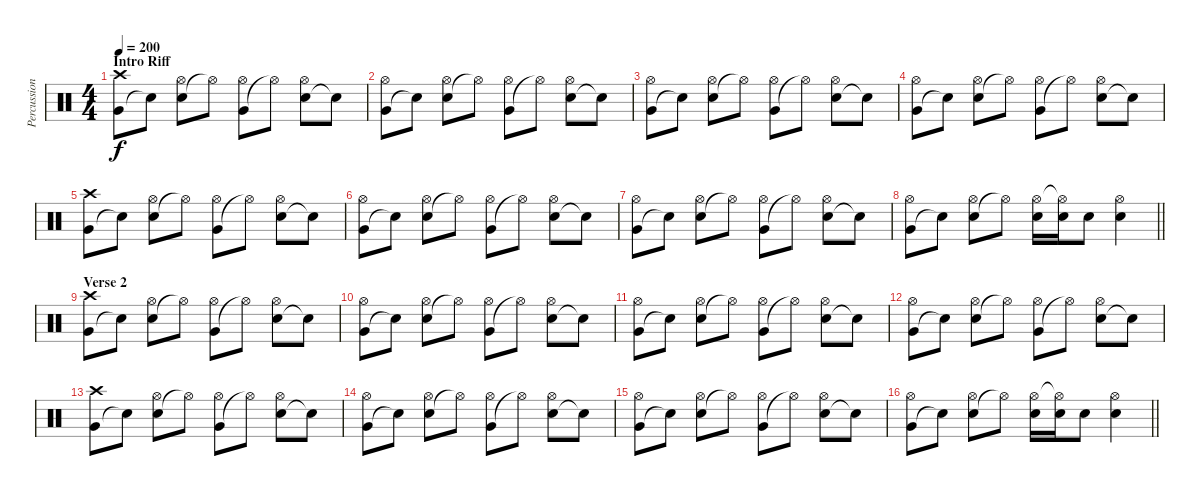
\track ("Percussion" "Percussion") {instrument percussion}
\staff {score}
\articulation defaults
\ts (4 4)
\section ("" "Intro Riff")
\tempo 200
\clef neutral
\ks c
("Very Low Tom (hit)" "Crash high (hit)").8{dy f} "Snare (hit)"{t}.8 ("Snare (hit) 2" "Hi-Hat (open)").8 "Hi-Hat (open)"{t}.8 ("Very Low Tom (hit)" "Hi-Hat (open)").8 "Hi-Hat (open)"{t}.8 ("Snare (hit) 2" "Hi-Hat (open)").8 "Snare (hit)"{t}.8 |
("Very Low Tom (hit)" "Hi-Hat (open)").8 "Snare (hit)"{t}.8 ("Snare (hit) 2" "Hi-Hat (open)").8 "Hi-Hat (open)"{t}.8 ("Very Low Tom (hit)" "Hi-Hat (open)").8 "Hi-Hat (open)"{t}.8 ("Snare (hit) 2" "Hi-Hat (open)").8 "Snare (hit)"{t}.8 |
("Very Low Tom (hit)" "Hi-Hat (open)").8 "Snare (hit)"{t}.8 ("Snare (hit) 2" "Hi-Hat (open)").8 "Hi-Hat (open)"{t}.8 ("Very Low Tom (hit)" "Hi-Hat (open)").8 "Hi-Hat (open)"{t}.8 ("Snare (hit) 2" "Hi-Hat (open)").8 "Snare (hit)"{t}.8 |
("Very Low Tom (hit)" "Hi-Hat (open)").8 "Snare (hit)"{t}.8 ("Snare (hit) 2" "Hi-Hat (open)").8 "Hi-Hat (open)"{t}.8 ("Very Low Tom (hit)" "Hi-Hat (open)").8 "Hi-Hat (open)"{t}.8 ("Snare (hit) 2" "Hi-Hat (open)").8 "Snare (hit)"{t}.8 |
("Very Low Tom (hit)" "Crash high (hit)").8 "Snare (hit)"{t}.8 ("Snare (hit) 2" "Hi-Hat (open)").8 "Hi-Hat (open)"{t}.8 ("Very Low Tom (hit)" "Hi-Hat (open)").8 "Hi-Hat (open)"{t}.8 ("Snare (hit) 2" "Hi-Hat (open)").8 "Snare (hit)"{t}.8 |
("Very Low Tom (hit)" "Hi-Hat (open)").8 "Snare (hit)"{t}.8 ("Snare (hit) 2" "Hi-Hat (open)").8 "Hi-Hat (open)"{t}.8 ("Very Low Tom (hit)" "Hi-Hat (open)").8 "Hi-Hat (open)"{t}.8 ("Snare (hit) 2" "Hi-Hat (open)").8 "Snare (hit)"{t}.8 |
("Very Low Tom (hit)" "Hi-Hat (open)").8 "Snare (hit)"{t}.8 ("Snare (hit) 2" "Hi-Hat (open)").8 "Hi-Hat (open)"{t}.8 ("Very Low Tom (hit)" "Hi-Hat (open)").8 "Hi-Hat (open)"{t}.8 ("Snare (hit) 2" "Hi-Hat (open)").8 "Snare (hit)"{t}.8 |
\barLineRight lightlight
("Very Low Tom (hit)" "Hi-Hat (open)").8 "Snare (hit)"{t}.8 ("Snare (hit) 2" "Hi-Hat (open)").8 "Hi-Hat (open)"{t}.8 ("Electric Snare (hit)" "Hi-Hat (open)").16 ("Electric Snare (hit)" "Hi-Hat (open)"{t}).16 "Electric Snare (hit)".8 ("Snare (hit) 2" "Hi-Hat (open)").4 |
\section ("" "Verse 2")
("Very Low Tom (hit)" "Crash high (hit)").8 "Snare (hit)"{t}.8 ("Snare (hit) 2" "Hi-Hat (open)").8 "Hi-Hat (open)"{t}.8 ("Very Low Tom (hit)" "Hi-Hat (open)").8 "Hi-Hat (open)"{t}.8 ("Snare (hit) 2" "Hi-Hat (open)").8 "Snare (hit)"{t}.8 |
("Very Low Tom (hit)" "Hi-Hat (open)").8 "Snare (hit)"{t}.8 ("Snare (hit) 2" "Hi-Hat (open)").8 "Hi-Hat (open)"{t}.8 ("Very Low Tom (hit)" "Hi-Hat (open)").8 "Hi-Hat (open)"{t}.8 ("Snare (hit) 2" "Hi-Hat (open)").8 "Snare (hit)"{t}.8 |
("Very Low Tom (hit)" "Hi-Hat (open)").8 "Snare (hit)"{t}.8 ("Snare (hit) 2" "Hi-Hat (open)").8 "Hi-Hat (open)"{t}.8 ("Very Low Tom (hit)" "Hi-Hat (open)").8 "Hi-Hat (open)"{t}.8 ("Snare (hit) 2" "Hi-Hat (open)").8 "Snare (hit)"{t}.8 |
("Very Low Tom (hit)" "Hi-Hat (open)").8 "Snare (hit)"{t}.8 ("Snare (hit) 2" "Hi-Hat (open)").8 "Hi-Hat (open)"{t}.8 ("Very Low Tom (hit)" "Hi-Hat (open)").8 "Hi-Hat (open)"{t}.8 ("Snare (hit) 2" "Hi-Hat (open)").8 "Snare (hit)"{t}.8 |
("Very Low Tom (hit)" "Crash high (hit)").8 "Snare (hit)"{t}.8 ("Snare (hit) 2" "Hi-Hat (open)").8 "Hi-Hat (open)"{t}.8 ("Very Low Tom (hit)" "Hi-Hat (open)").8 "Hi-Hat (open)"{t}.8 ("Snare (hit) 2" "Hi-Hat (open)").8 "Snare (hit)"{t}.8 |
("Very Low Tom (hit)" "Hi-Hat (open)").8 "Snare (hit)"{t}.8 ("Snare (hit) 2" "Hi-Hat (open)").8 "Hi-Hat (open)"{t}.8 ("Very Low Tom (hit)" "Hi-Hat (open)").8 "Hi-Hat (open)"{t}.8 ("Snare (hit) 2" "Hi-Hat (open)").8 "Snare (hit)"{t}.8 |
("Very Low Tom (hit)" "Hi-Hat (open)").8 "Snare (hit)"{t}.8 ("Snare (hit) 2" "Hi-Hat (open)").8 "Hi-Hat (open)"{t}.8 ("Very Low Tom (hit)" "Hi-Hat (open)").8 "Hi-Hat (open)"{t}.8 ("Snare (hit) 2" "Hi-Hat (open)").8 "Snare (hit)"{t}.8 |
\barLineRight lightlight
("Very Low Tom (hit)" "Hi-Hat (open)").8 "Snare (hit)"{t}.8 ("Snare (hit) 2" "Hi-Hat (open)").8 "Hi-Hat (open)"{t}.8 ("Electric Snare (hit)" "Hi-Hat (open)").16 ("Electric Snare (hit)" "Hi-Hat (open)"{t}).16 "Electric Snare (hit)".8 ("Snare (hit) 2" "Hi-Hat (open)").4
